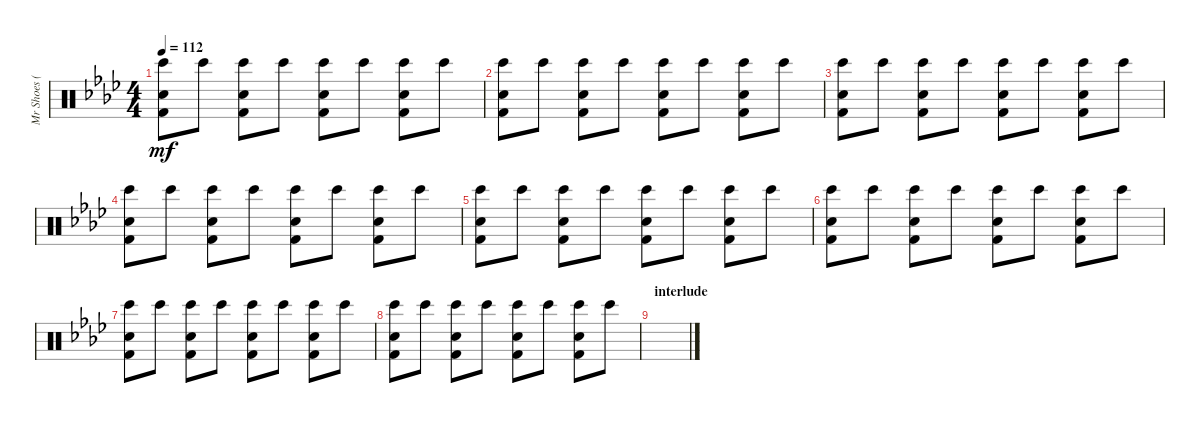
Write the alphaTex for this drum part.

\track ("Mr Shoes (batterie)" "Mr Shoes (") {instrument percussion}
\staff {score}
\articulation defaults
\ts (4 4)
\tempo 112
\clef neutral
\ks ab
("Snare (hit) 2" "Kick (hit) 2" "Bongo High (hit)").8{dy mf} "Bongo High (hit)".8 ("Snare (hit) 2" "Kick (hit) 2" "Bongo High (hit)").8 "Bongo High (hit)".8 ("Snare (hit) 2" "Kick (hit) 2" "Bongo High (hit)").8 "Bongo High (hit)".8 ("Snare (hit) 2" "Kick (hit) 2" "Bongo High (hit)").8 "Bongo High (hit)".8 |
("Snare (hit) 2" "Kick (hit) 2" "Bongo High (hit)").8 "Bongo High (hit)".8 ("Snare (hit) 2" "Kick (hit) 2" "Bongo High (hit)").8 "Bongo High (hit)".8 ("Snare (hit) 2" "Kick (hit) 2" "Bongo High (hit)").8 "Bongo High (hit)".8 ("Snare (hit) 2" "Kick (hit) 2" "Bongo High (hit)").8 "Bongo High (hit)".8 |
("Snare (hit) 2" "Kick (hit) 2" "Bongo High (hit)").8 "Bongo High (hit)".8 ("Snare (hit) 2" "Kick (hit) 2" "Bongo High (hit)").8 "Bongo High (hit)".8 ("Snare (hit) 2" "Kick (hit) 2" "Bongo High (hit)").8 "Bongo High (hit)".8 ("Snare (hit) 2" "Kick (hit) 2" "Bongo High (hit)").8 "Bongo High (hit)".8 |
("Snare (hit) 2" "Kick (hit) 2" "Bongo High (hit)").8 "Bongo High (hit)".8 ("Snare (hit) 2" "Kick (hit) 2" "Bongo High (hit)").8 "Bongo High (hit)".8 ("Snare (hit) 2" "Kick (hit) 2" "Bongo High (hit)").8 "Bongo High (hit)".8 ("Snare (hit) 2" "Kick (hit) 2" "Bongo High (hit)").8 "Bongo High (hit)".8 |
("Snare (hit) 2" "Kick (hit) 2" "Bongo High (hit)").8 "Bongo High (hit)".8 ("Snare (hit) 2" "Kick (hit) 2" "Bongo High (hit)").8 "Bongo High (hit)".8 ("Snare (hit) 2" "Kick (hit) 2" "Bongo High (hit)").8 "Bongo High (hit)".8 ("Snare (hit) 2" "Kick (hit) 2" "Bongo High (hit)").8 "Bongo High (hit)".8 |
("Snare (hit) 2" "Kick (hit) 2" "Bongo High (hit)").8 "Bongo High (hit)".8 ("Snare (hit) 2" "Kick (hit) 2" "Bongo High (hit)").8 "Bongo High (hit)".8 ("Snare (hit) 2" "Kick (hit) 2" "Bongo High (hit)").8 "Bongo High (hit)".8 ("Snare (hit) 2" "Kick (hit) 2" "Bongo High (hit)").8 "Bongo High (hit)".8 |
("Snare (hit) 2" "Kick (hit) 2" "Bongo High (hit)").8 "Bongo High (hit)".8 ("Snare (hit) 2" "Kick (hit) 2" "Bongo High (hit)").8 "Bongo High (hit)".8 ("Snare (hit) 2" "Kick (hit) 2" "Bongo High (hit)").8 "Bongo High (hit)".8 ("Snare (hit) 2" "Kick (hit) 2" "Bongo High (hit)").8 "Bongo High (hit)".8 |
("Snare (hit) 2" "Kick (hit) 2" "Bongo High (hit)").8 "Bongo High (hit)".8 ("Snare (hit) 2" "Kick (hit) 2" "Bongo High (hit)").8 "Bongo High (hit)".8 ("Snare (hit) 2" "Kick (hit) 2" "Bongo High (hit)").8 "Bongo High (hit)".8 ("Snare (hit) 2" "Kick (hit) 2" "Bongo High (hit)").8 "Bongo High (hit)".8 |
\section ("" "interlude")
